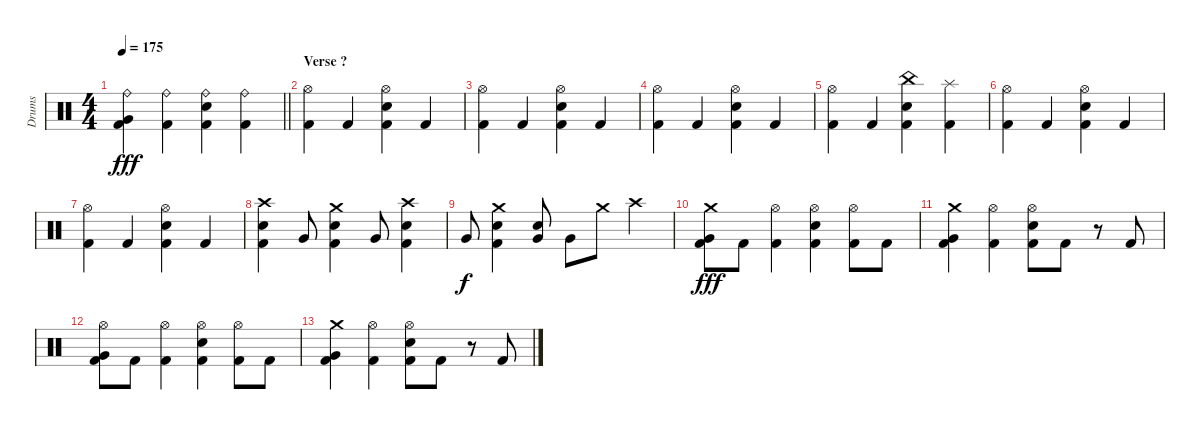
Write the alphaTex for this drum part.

\track ("Drums" "Drums") {instrument percussion}
\staff {score}
\articulation defaults
\ts (4 4)
\tempo 175
\clef neutral
\barLineRight lightlight
\ks c
("Ride (bell)" "Very Low Tom (hit)" "Kick (hit) 2").4{dy fff} ("Ride (bell)" "Kick (hit) 2").4 ("Ride (bell)" "Electric Snare (hit)" "Kick (hit) 2").4 ("Ride (bell)" "Kick (hit) 2").4 |
\section ("" "Verse ?")
("Hi-Hat (open)" "Kick (hit) 2").4 "Kick (hit) 2".4 ("Hi-Hat (open)" "Electric Snare (hit)" "Kick (hit) 2").4 "Kick (hit) 2".4 |
("Hi-Hat (open)" "Kick (hit) 2").4 "Kick (hit) 2".4 ("Hi-Hat (open)" "Electric Snare (hit)" "Kick (hit) 2").4 "Kick (hit) 2".4 |
("Hi-Hat (open)" "Kick (hit) 2").4 "Kick (hit) 2".4 ("Hi-Hat (open)" "Electric Snare (hit)" "Kick (hit) 2").4 "Kick (hit) 2".4 |
("Hi-Hat (open)" "Kick (hit) 2").4 "Kick (hit) 2".4 ("China (hit)" "Electric Snare (hit)" "Kick (hit) 2").4 ("Splash (hit)" "Kick (hit) 2").4 |
("Hi-Hat (open)" "Kick (hit) 2").4 "Kick (hit) 2".4 ("Hi-Hat (open)" "Electric Snare (hit)" "Kick (hit) 2").4 "Kick (hit) 2".4 |
("Hi-Hat (open)" "Kick (hit) 2").4 "Kick (hit) 2".4 ("Hi-Hat (open)" "Electric Snare (hit)" "Kick (hit) 2").4 "Kick (hit) 2".4 |
("Crash high (hit)" "Electric Snare (hit)" "Kick (hit) 2").4 "Very Low Tom (hit)".8 ("Crash medium (hit)" "Electric Snare (hit)" "Kick (hit) 2").4 "Very Low Tom (hit)".8 ("Crash high (hit)" "Electric Snare (hit)" "Kick (hit) 2").4 |
"Very Low Tom (hit)".8{dy f} ("Crash medium (hit)" "Electric Snare (hit)" "Kick (hit) 2").4 ("Electric Snare (hit)" "Very Low Tom (hit)").8 "Very Low Tom (hit)".8 "Crash medium (hit)".8 "Crash high (hit)".4 |
("Crash medium (hit)" "Very Low Tom (hit)" "Kick (hit) 2").8{dy fff} "Kick (hit) 2".8 ("Hi-Hat (open)" "Kick (hit) 2").4 ("Hi-Hat (open)" "Electric Snare (hit)" "Kick (hit) 2").4 ("Hi-Hat (open)" "Kick (hit) 2").8 "Kick (hit) 2".8 |
("Crash medium (hit)" "Very Low Tom (hit)" "Kick (hit) 2").4 ("Hi-Hat (open)" "Kick (hit) 2").4 ("Hi-Hat (open)" "Electric Snare (hit)" "Kick (hit) 2").8 "Kick (hit) 2".8 r.8 "Kick (hit) 2".8 |
("Hi-Hat (open)" "Very Low Tom (hit)" "Kick (hit) 2").8 "Kick (hit) 2".8 ("Hi-Hat (open)" "Kick (hit) 2").4 ("Hi-Hat (open)" "Electric Snare (hit)" "Kick (hit) 2").4 ("Hi-Hat (open)" "Kick (hit) 2").8 "Kick (hit) 2".8 |
("Crash medium (hit)" "Very Low Tom (hit)" "Kick (hit) 2").4 ("Hi-Hat (open)" "Kick (hit) 2").4 ("Hi-Hat (open)" "Electric Snare (hit)" "Kick (hit) 2").8 "Kick (hit) 2".8 r.8 "Kick (hit) 2".8
